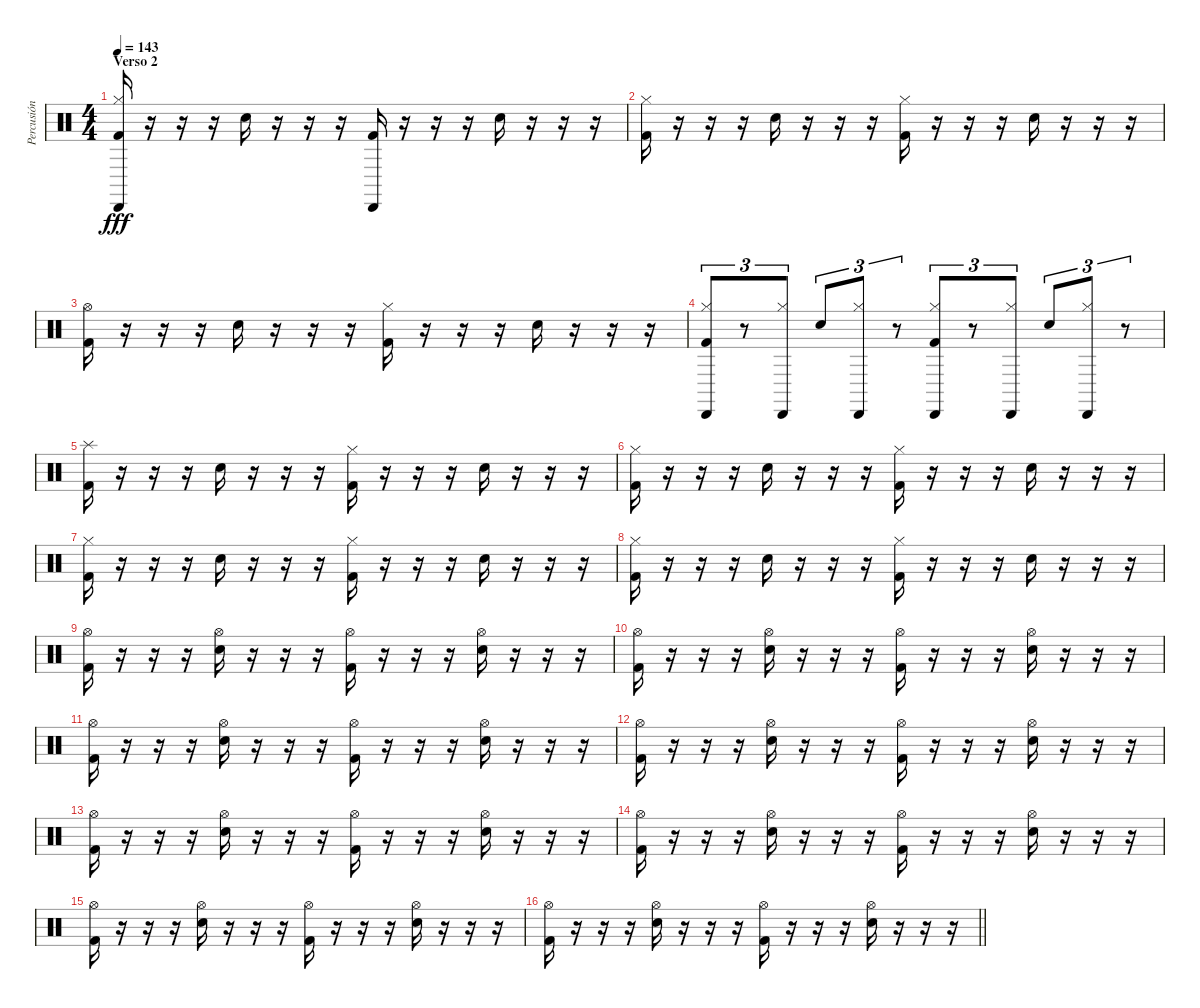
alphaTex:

\track ("Percusión" "Percusión") {instrument percussion}
\staff {score}
\articulation defaults
\ts (4 4)
\section ("" "Verso 2")
\tempo 143
\clef neutral
\ks c
("Kick (hit) 2" "Hi-Hat (closed)" "Cabasa (hit)").16{dy fff} r.16 r.16 r.16 "Snare (hit) 2".16 r.16 r.16 r.16 ("Kick (hit) 2" "Cabasa (hit)").16 r.16 r.16 r.16 "Snare (hit) 2".16 r.16 r.16 r.16 |
("Kick (hit) 2" "Hi-Hat (closed)").16 r.16 r.16 r.16 "Snare (hit) 2".16 r.16 r.16 r.16 ("Kick (hit) 2" "Hi-Hat (closed)").16 r.16 r.16 r.16 "Snare (hit) 2".16 r.16 r.16 r.16 |
("Kick (hit) 2" "Hi-Hat (open)").16 r.16 r.16 r.16 "Snare (hit) 2".16 r.16 r.16 r.16 ("Kick (hit) 2" "Hi-Hat (closed)").16 r.16 r.16 r.16 "Snare (hit) 2".16 r.16 r.16 r.16 |
("Hi-Hat (closed)" "Cabasa (hit)" "Kick (hit) 2").8{tu (3 2)} r.8{tu (3 2)} ("Hi-Hat (closed)" "Cabasa (hit)").8{tu (3 2)} "Snare (hit) 2".8{tu (3 2)} ("Hi-Hat (closed)" "Cabasa (hit)").8{tu (3 2)} r.8{tu (3 2)} ("Hi-Hat (closed)" "Cabasa (hit)" "Kick (hit) 2").8{tu (3 2)} r.8{tu (3 2)} ("Hi-Hat (closed)" "Cabasa (hit)").8{tu (3 2)} "Snare (hit) 2".8{tu (3 2)} ("Hi-Hat (closed)" "Cabasa (hit)").8{tu (3 2)} r.8{tu (3 2)} |
("Kick (hit) 2" "Splash (hit)").16 r.16 r.16 r.16 "Snare (hit) 2".16 r.16 r.16 r.16 ("Kick (hit) 2" "Hi-Hat (closed)").16 r.16 r.16 r.16 "Snare (hit) 2".16 r.16 r.16 r.16 |
("Kick (hit) 2" "Hi-Hat (closed)").16 r.16 r.16 r.16 "Snare (hit) 2".16 r.16 r.16 r.16 ("Kick (hit) 2" "Hi-Hat (closed)").16 r.16 r.16 r.16 "Snare (hit) 2".16 r.16 r.16 r.16 |
("Kick (hit) 2" "Hi-Hat (closed)").16 r.16 r.16 r.16 "Snare (hit) 2".16 r.16 r.16 r.16 ("Kick (hit) 2" "Hi-Hat (closed)").16 r.16 r.16 r.16 "Snare (hit) 2".16 r.16 r.16 r.16 |
("Kick (hit) 2" "Hi-Hat (closed)").16 r.16 r.16 r.16 "Snare (hit) 2".16 r.16 r.16 r.16 ("Kick (hit) 2" "Hi-Hat (closed)").16 r.16 r.16 r.16 "Snare (hit) 2".16 r.16 r.16 r.16 |
("Kick (hit) 2" "Hi-Hat (open)").16 r.16 r.16 r.16 ("Snare (hit) 2" "Hi-Hat (open)").16 r.16 r.16 r.16 ("Kick (hit) 2" "Hi-Hat (open)").16 r.16 r.16 r.16 ("Snare (hit) 2" "Hi-Hat (open)").16 r.16 r.16 r.16 |
("Kick (hit) 2" "Hi-Hat (open)").16 r.16 r.16 r.16 ("Snare (hit) 2" "Hi-Hat (open)").16 r.16 r.16 r.16 ("Kick (hit) 2" "Hi-Hat (open)").16 r.16 r.16 r.16 ("Snare (hit) 2" "Hi-Hat (open)").16 r.16 r.16 r.16 |
("Kick (hit) 2" "Hi-Hat (open)").16 r.16 r.16 r.16 ("Snare (hit) 2" "Hi-Hat (open)").16 r.16 r.16 r.16 ("Kick (hit) 2" "Hi-Hat (open)").16 r.16 r.16 r.16 ("Snare (hit) 2" "Hi-Hat (open)").16 r.16 r.16 r.16 |
("Kick (hit) 2" "Hi-Hat (open)").16 r.16 r.16 r.16 ("Snare (hit) 2" "Hi-Hat (open)").16 r.16 r.16 r.16 ("Kick (hit) 2" "Hi-Hat (open)").16 r.16 r.16 r.16 ("Snare (hit) 2" "Hi-Hat (open)").16 r.16 r.16 r.16 |
("Kick (hit) 2" "Hi-Hat (open)").16 r.16 r.16 r.16 ("Snare (hit) 2" "Hi-Hat (open)").16 r.16 r.16 r.16 ("Kick (hit) 2" "Hi-Hat (open)").16 r.16 r.16 r.16 ("Snare (hit) 2" "Hi-Hat (open)").16 r.16 r.16 r.16 |
("Kick (hit) 2" "Hi-Hat (open)").16 r.16 r.16 r.16 ("Snare (hit) 2" "Hi-Hat (open)").16 r.16 r.16 r.16 ("Kick (hit) 2" "Hi-Hat (open)").16 r.16 r.16 r.16 ("Snare (hit) 2" "Hi-Hat (open)").16 r.16 r.16 r.16 |
("Kick (hit) 2" "Hi-Hat (open)").16 r.16 r.16 r.16 ("Snare (hit) 2" "Hi-Hat (open)").16 r.16 r.16 r.16 ("Kick (hit) 2" "Hi-Hat (open)").16 r.16 r.16 r.16 ("Snare (hit) 2" "Hi-Hat (open)").16 r.16 r.16 r.16 |
\barLineRight lightlight
("Kick (hit) 2" "Hi-Hat (open)").16 r.16 r.16 r.16 ("Snare (hit) 2" "Hi-Hat (open)").16 r.16 r.16 r.16 ("Kick (hit) 2" "Hi-Hat (open)").16 r.16 r.16 r.16 ("Snare (hit) 2" "Hi-Hat (open)").16 r.16 r.16 r.16
